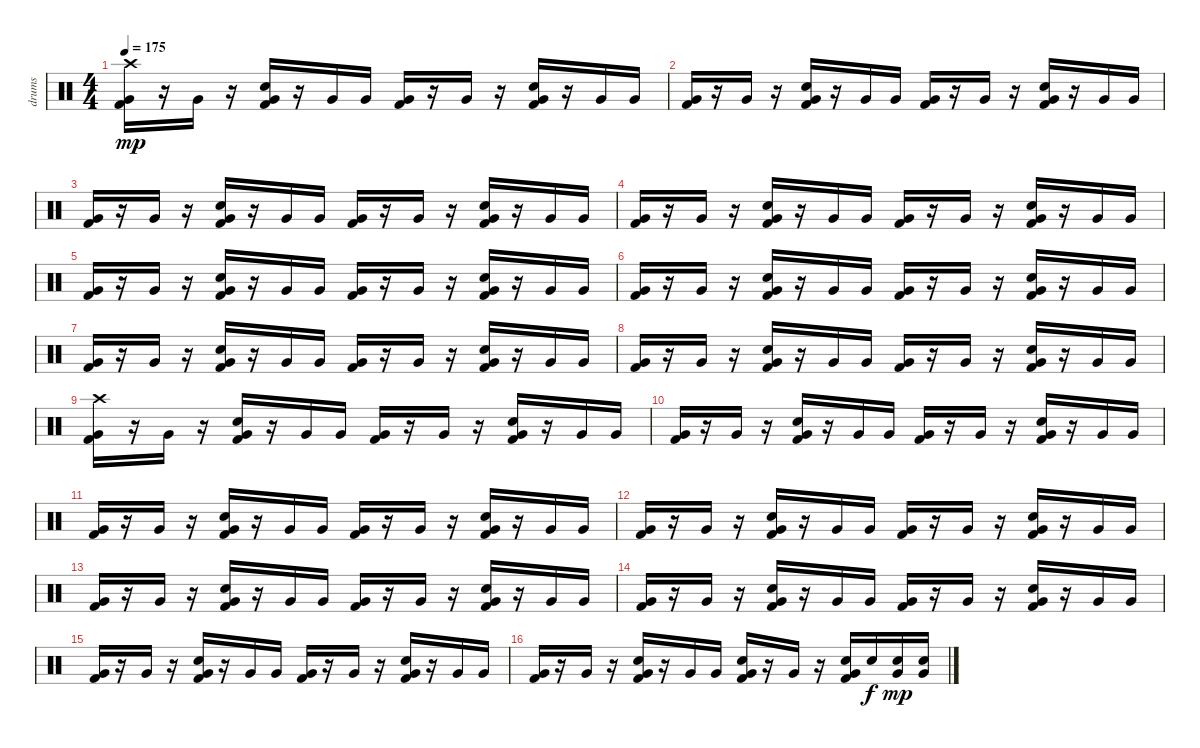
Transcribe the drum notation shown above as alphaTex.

\track ("drums" "drums") {instrument percussion}
\staff {score}
\articulation defaults
\ts (4 4)
\tempo 175
\clef neutral
\ks c
("Crash high (hit)" "Very Low Tom (hit)" "Kick (hit) 2").16{dy mp} r.16 "Very Low Tom (hit)".16 r.16 ("Very Low Tom (hit)" "Electric Snare (hit)" "Kick (hit) 2").16 r.16 "Very Low Tom (hit)".16 "Very Low Tom (hit)".16 ("Very Low Tom (hit)" "Kick (hit) 2").16 r.16 "Very Low Tom (hit)".16 r.16 ("Very Low Tom (hit)" "Electric Snare (hit)" "Kick (hit) 2").16 r.16 "Very Low Tom (hit)".16 "Very Low Tom (hit)".16 |
("Very Low Tom (hit)" "Kick (hit) 2").16 r.16 "Very Low Tom (hit)".16 r.16 ("Very Low Tom (hit)" "Electric Snare (hit)" "Kick (hit) 2").16 r.16 "Very Low Tom (hit)".16 "Very Low Tom (hit)".16 ("Very Low Tom (hit)" "Kick (hit) 2").16 r.16 "Very Low Tom (hit)".16 r.16 ("Very Low Tom (hit)" "Electric Snare (hit)" "Kick (hit) 2").16 r.16 "Very Low Tom (hit)".16 "Very Low Tom (hit)".16 |
("Very Low Tom (hit)" "Kick (hit) 2").16 r.16 "Very Low Tom (hit)".16 r.16 ("Very Low Tom (hit)" "Electric Snare (hit)" "Kick (hit) 2").16 r.16 "Very Low Tom (hit)".16 "Very Low Tom (hit)".16 ("Very Low Tom (hit)" "Kick (hit) 2").16 r.16 "Very Low Tom (hit)".16 r.16 ("Very Low Tom (hit)" "Electric Snare (hit)" "Kick (hit) 2").16 r.16 "Very Low Tom (hit)".16 "Very Low Tom (hit)".16 |
("Very Low Tom (hit)" "Kick (hit) 2").16 r.16 "Very Low Tom (hit)".16 r.16 ("Very Low Tom (hit)" "Electric Snare (hit)" "Kick (hit) 2").16 r.16 "Very Low Tom (hit)".16 "Very Low Tom (hit)".16 ("Very Low Tom (hit)" "Kick (hit) 2").16 r.16 "Very Low Tom (hit)".16 r.16 ("Very Low Tom (hit)" "Electric Snare (hit)" "Kick (hit) 2").16 r.16 "Very Low Tom (hit)".16 "Very Low Tom (hit)".16 |
("Very Low Tom (hit)" "Kick (hit) 2").16 r.16 "Very Low Tom (hit)".16 r.16 ("Very Low Tom (hit)" "Electric Snare (hit)" "Kick (hit) 2").16 r.16 "Very Low Tom (hit)".16 "Very Low Tom (hit)".16 ("Very Low Tom (hit)" "Kick (hit) 2").16 r.16 "Very Low Tom (hit)".16 r.16 ("Very Low Tom (hit)" "Electric Snare (hit)" "Kick (hit) 2").16 r.16 "Very Low Tom (hit)".16 "Very Low Tom (hit)".16 |
("Very Low Tom (hit)" "Kick (hit) 2").16 r.16 "Very Low Tom (hit)".16 r.16 ("Very Low Tom (hit)" "Electric Snare (hit)" "Kick (hit) 2").16 r.16 "Very Low Tom (hit)".16 "Very Low Tom (hit)".16 ("Very Low Tom (hit)" "Kick (hit) 2").16 r.16 "Very Low Tom (hit)".16 r.16 ("Very Low Tom (hit)" "Electric Snare (hit)" "Kick (hit) 2").16 r.16 "Very Low Tom (hit)".16 "Very Low Tom (hit)".16 |
("Very Low Tom (hit)" "Kick (hit) 2").16 r.16 "Very Low Tom (hit)".16 r.16 ("Very Low Tom (hit)" "Electric Snare (hit)" "Kick (hit) 2").16 r.16 "Very Low Tom (hit)".16 "Very Low Tom (hit)".16 ("Very Low Tom (hit)" "Kick (hit) 2").16 r.16 "Very Low Tom (hit)".16 r.16 ("Very Low Tom (hit)" "Electric Snare (hit)" "Kick (hit) 2").16 r.16 "Very Low Tom (hit)".16 "Very Low Tom (hit)".16 |
("Very Low Tom (hit)" "Kick (hit) 2").16 r.16 "Very Low Tom (hit)".16 r.16 ("Very Low Tom (hit)" "Electric Snare (hit)" "Kick (hit) 2").16 r.16 "Very Low Tom (hit)".16 "Very Low Tom (hit)".16 ("Very Low Tom (hit)" "Kick (hit) 2").16 r.16 "Very Low Tom (hit)".16 r.16 ("Very Low Tom (hit)" "Electric Snare (hit)" "Kick (hit) 2").16 r.16 "Very Low Tom (hit)".16 "Very Low Tom (hit)".16 |
("Crash high (hit)" "Kick (hit) 2" "Very Low Tom (hit)").16 r.16 "Very Low Tom (hit)".16 r.16 ("Electric Snare (hit)" "Kick (hit) 2" "Very Low Tom (hit)").16 r.16 "Very Low Tom (hit)".16 "Very Low Tom (hit)".16 ("Kick (hit) 2" "Very Low Tom (hit)").16 r.16 "Very Low Tom (hit)".16 r.16 ("Electric Snare (hit)" "Kick (hit) 2" "Very Low Tom (hit)").16 r.16 "Very Low Tom (hit)".16 "Very Low Tom (hit)".16 |
("Kick (hit) 2" "Very Low Tom (hit)").16 r.16 "Very Low Tom (hit)".16 r.16 ("Electric Snare (hit)" "Kick (hit) 2" "Very Low Tom (hit)").16 r.16 "Very Low Tom (hit)".16 "Very Low Tom (hit)".16 ("Kick (hit) 2" "Very Low Tom (hit)").16 r.16 "Very Low Tom (hit)".16 r.16 ("Electric Snare (hit)" "Kick (hit) 2" "Very Low Tom (hit)").16 r.16 "Very Low Tom (hit)".16 "Very Low Tom (hit)".16 |
("Kick (hit) 2" "Very Low Tom (hit)").16 r.16 "Very Low Tom (hit)".16 r.16 ("Electric Snare (hit)" "Kick (hit) 2" "Very Low Tom (hit)").16 r.16 "Very Low Tom (hit)".16 "Very Low Tom (hit)".16 ("Kick (hit) 2" "Very Low Tom (hit)").16 r.16 "Very Low Tom (hit)".16 r.16 ("Electric Snare (hit)" "Kick (hit) 2" "Very Low Tom (hit)").16 r.16 "Very Low Tom (hit)".16 "Very Low Tom (hit)".16 |
("Kick (hit) 2" "Very Low Tom (hit)").16 r.16 "Very Low Tom (hit)".16 r.16 ("Electric Snare (hit)" "Kick (hit) 2" "Very Low Tom (hit)").16 r.16 "Very Low Tom (hit)".16 "Very Low Tom (hit)".16 ("Kick (hit) 2" "Very Low Tom (hit)").16 r.16 "Very Low Tom (hit)".16 r.16 ("Electric Snare (hit)" "Kick (hit) 2" "Very Low Tom (hit)").16 r.16 "Very Low Tom (hit)".16 "Very Low Tom (hit)".16 |
("Very Low Tom (hit)" "Kick (hit) 2").16 r.16 "Very Low Tom (hit)".16 r.16 ("Very Low Tom (hit)" "Electric Snare (hit)" "Kick (hit) 2").16 r.16 "Very Low Tom (hit)".16 "Very Low Tom (hit)".16 ("Very Low Tom (hit)" "Kick (hit) 2").16 r.16 "Very Low Tom (hit)".16 r.16 ("Very Low Tom (hit)" "Electric Snare (hit)" "Kick (hit) 2").16 r.16 "Very Low Tom (hit)".16 "Very Low Tom (hit)".16 |
("Kick (hit) 2" "Very Low Tom (hit)").16 r.16 "Very Low Tom (hit)".16 r.16 ("Electric Snare (hit)" "Kick (hit) 2" "Very Low Tom (hit)").16 r.16 "Very Low Tom (hit)".16 "Very Low Tom (hit)".16 ("Kick (hit) 2" "Very Low Tom (hit)").16 r.16 "Very Low Tom (hit)".16 r.16 ("Electric Snare (hit)" "Kick (hit) 2" "Very Low Tom (hit)").16 r.16 "Very Low Tom (hit)".16 "Very Low Tom (hit)".16 |
("Very Low Tom (hit)" "Kick (hit) 2").16 r.16 "Very Low Tom (hit)".16 r.16 ("Very Low Tom (hit)" "Electric Snare (hit)" "Kick (hit) 2").16 r.16 "Very Low Tom (hit)".16 "Very Low Tom (hit)".16 ("Very Low Tom (hit)" "Kick (hit) 2").16 r.16 "Very Low Tom (hit)".16 r.16 ("Very Low Tom (hit)" "Electric Snare (hit)" "Kick (hit) 2").16 r.16 "Very Low Tom (hit)".16 "Very Low Tom (hit)".16 |
("Kick (hit) 2" "Very Low Tom (hit)").16 r.16 "Very Low Tom (hit)".16 r.16 ("Electric Snare (hit)" "Kick (hit) 2" "Very Low Tom (hit)").16 r.16 "Very Low Tom (hit)".16 "Very Low Tom (hit)".16 ("Kick (hit) 2" "Electric Snare (hit)" "Very Low Tom (hit)").16 r.16 "Very Low Tom (hit)".16 r.16 ("Electric Snare (hit)" "Kick (hit) 2" "Very Low Tom (hit)").16 "Electric Snare (hit)".16{dy f} ("Electric Snare (hit)" "Very Low Tom (hit)").16{dy mp} ("Electric Snare (hit)" "Very Low Tom (hit)").16
